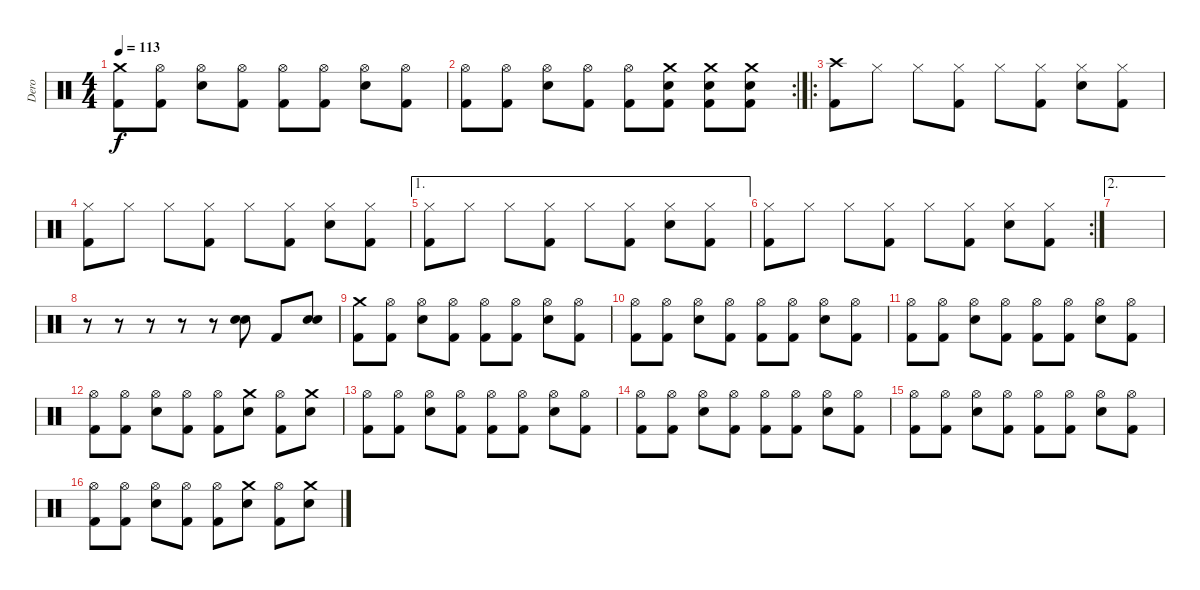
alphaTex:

\track ("Dero" "Dero") {instrument percussion}
\staff {score}
\articulation defaults
\ts (4 4)
\tempo 113
\clef neutral
\ks c
("Crash medium (hit)" "Kick (hit) 2").8{dy f} ("Hi-Hat (open)" "Kick (hit) 2").8 ("Hi-Hat (open)" "Electric Snare (hit)").8 ("Hi-Hat (open)" "Kick (hit) 2").8 ("Hi-Hat (open)" "Kick (hit) 2").8 ("Hi-Hat (open)" "Kick (hit) 2").8 ("Hi-Hat (open)" "Electric Snare (hit)").8 ("Hi-Hat (open)" "Kick (hit) 2").8 |
\rc 2
("Hi-Hat (open)" "Kick (hit) 2").8 ("Hi-Hat (open)" "Kick (hit) 2").8 ("Hi-Hat (open)" "Electric Snare (hit)").8 ("Hi-Hat (open)" "Kick (hit) 2").8 ("Hi-Hat (open)" "Kick (hit) 2").8 ("Crash medium (hit)" "Electric Snare (hit)" "Kick (hit) 2").8 ("Crash medium (hit)" "Electric Snare (hit)" "Kick (hit) 2").8 ("Crash medium (hit)" "Electric Snare (hit)" "Kick (hit) 2").8 |
\ro
("Crash high (hit)" "Kick (hit) 2").8 "Hi-Hat (closed)".8 "Hi-Hat (closed)".8 ("Hi-Hat (closed)" "Kick (hit) 2").8 "Hi-Hat (closed)".8 ("Hi-Hat (closed)" "Kick (hit) 2").8 ("Hi-Hat (closed)" "Electric Snare (hit)").8 ("Hi-Hat (closed)" "Kick (hit) 2").8 |
("Hi-Hat (closed)" "Kick (hit) 2").8 "Hi-Hat (closed)".8 "Hi-Hat (closed)".8 ("Hi-Hat (closed)" "Kick (hit) 2").8 "Hi-Hat (closed)".8 ("Hi-Hat (closed)" "Kick (hit) 2").8 ("Hi-Hat (closed)" "Electric Snare (hit)").8 ("Hi-Hat (closed)" "Kick (hit) 2").8 |
\ae 1
("Hi-Hat (closed)" "Kick (hit) 2").8 "Hi-Hat (closed)".8 "Hi-Hat (closed)".8 ("Hi-Hat (closed)" "Kick (hit) 2").8 "Hi-Hat (closed)".8 ("Hi-Hat (closed)" "Kick (hit) 2").8 ("Hi-Hat (closed)" "Electric Snare (hit)").8 ("Hi-Hat (closed)" "Kick (hit) 2").8 |
\rc 2
("Hi-Hat (closed)" "Kick (hit) 2").8 "Hi-Hat (closed)".8 "Hi-Hat (closed)".8 ("Hi-Hat (closed)" "Kick (hit) 2").8 "Hi-Hat (closed)".8 ("Hi-Hat (closed)" "Kick (hit) 2").8 ("Hi-Hat (closed)" "Electric Snare (hit)").8 ("Hi-Hat (closed)" "Kick (hit) 2").8 |
\ae 2
|
r.8 r.8 r.8 r.8 r.8 ("Electric Snare (hit)" "Electric Snare (hit)").8 "Kick (hit) 2".8 ("Electric Snare (hit)" "Electric Snare (hit)").8 |
("Crash medium (hit)" "Kick (hit) 2").8 ("Hi-Hat (open)" "Kick (hit) 2").8 ("Hi-Hat (open)" "Electric Snare (hit)").8 ("Hi-Hat (open)" "Kick (hit) 2").8 ("Hi-Hat (open)" "Kick (hit) 2").8 ("Hi-Hat (open)" "Kick (hit) 2").8 ("Hi-Hat (open)" "Electric Snare (hit)").8 ("Hi-Hat (open)" "Kick (hit) 2").8 |
("Hi-Hat (open)" "Kick (hit) 2").8 ("Hi-Hat (open)" "Kick (hit) 2").8 ("Hi-Hat (open)" "Electric Snare (hit)").8 ("Hi-Hat (open)" "Kick (hit) 2").8 ("Hi-Hat (open)" "Kick (hit) 2").8 ("Hi-Hat (open)" "Kick (hit) 2").8 ("Hi-Hat (open)" "Electric Snare (hit)").8 ("Hi-Hat (open)" "Kick (hit) 2").8 |
("Hi-Hat (open)" "Kick (hit) 2").8 ("Hi-Hat (open)" "Kick (hit) 2").8 ("Hi-Hat (open)" "Electric Snare (hit)").8 ("Hi-Hat (open)" "Kick (hit) 2").8 ("Hi-Hat (open)" "Kick (hit) 2").8 ("Hi-Hat (open)" "Kick (hit) 2").8 ("Hi-Hat (open)" "Electric Snare (hit)").8 ("Hi-Hat (open)" "Kick (hit) 2").8 |
("Hi-Hat (open)" "Kick (hit) 2").8 ("Hi-Hat (open)" "Kick (hit) 2").8 ("Hi-Hat (open)" "Electric Snare (hit)").8 ("Hi-Hat (open)" "Kick (hit) 2").8 ("Hi-Hat (open)" "Kick (hit) 2").8 ("Crash medium (hit)" "Electric Snare (hit)").8 ("Hi-Hat (open)" "Kick (hit) 2").8 ("Crash medium (hit)" "Electric Snare (hit)").8 |
("Hi-Hat (open)" "Kick (hit) 2").8 ("Hi-Hat (open)" "Kick (hit) 2").8 ("Hi-Hat (open)" "Electric Snare (hit)").8 ("Hi-Hat (open)" "Kick (hit) 2").8 ("Hi-Hat (open)" "Kick (hit) 2").8 ("Hi-Hat (open)" "Kick (hit) 2").8 ("Hi-Hat (open)" "Electric Snare (hit)").8 ("Hi-Hat (open)" "Kick (hit) 2").8 |
("Hi-Hat (open)" "Kick (hit) 2").8 ("Hi-Hat (open)" "Kick (hit) 2").8 ("Hi-Hat (open)" "Electric Snare (hit)").8 ("Hi-Hat (open)" "Kick (hit) 2").8 ("Hi-Hat (open)" "Kick (hit) 2").8 ("Hi-Hat (open)" "Kick (hit) 2").8 ("Hi-Hat (open)" "Electric Snare (hit)").8 ("Hi-Hat (open)" "Kick (hit) 2").8 |
("Hi-Hat (open)" "Kick (hit) 2").8 ("Hi-Hat (open)" "Kick (hit) 2").8 ("Hi-Hat (open)" "Electric Snare (hit)").8 ("Hi-Hat (open)" "Kick (hit) 2").8 ("Hi-Hat (open)" "Kick (hit) 2").8 ("Hi-Hat (open)" "Kick (hit) 2").8 ("Hi-Hat (open)" "Electric Snare (hit)").8 ("Hi-Hat (open)" "Kick (hit) 2").8 |
("Hi-Hat (open)" "Kick (hit) 2").8 ("Hi-Hat (open)" "Kick (hit) 2").8 ("Hi-Hat (open)" "Electric Snare (hit)").8 ("Hi-Hat (open)" "Kick (hit) 2").8 ("Hi-Hat (open)" "Kick (hit) 2").8 ("Crash medium (hit)" "Electric Snare (hit)").8 ("Hi-Hat (open)" "Kick (hit) 2").8 ("Crash medium (hit)" "Electric Snare (hit)").8
